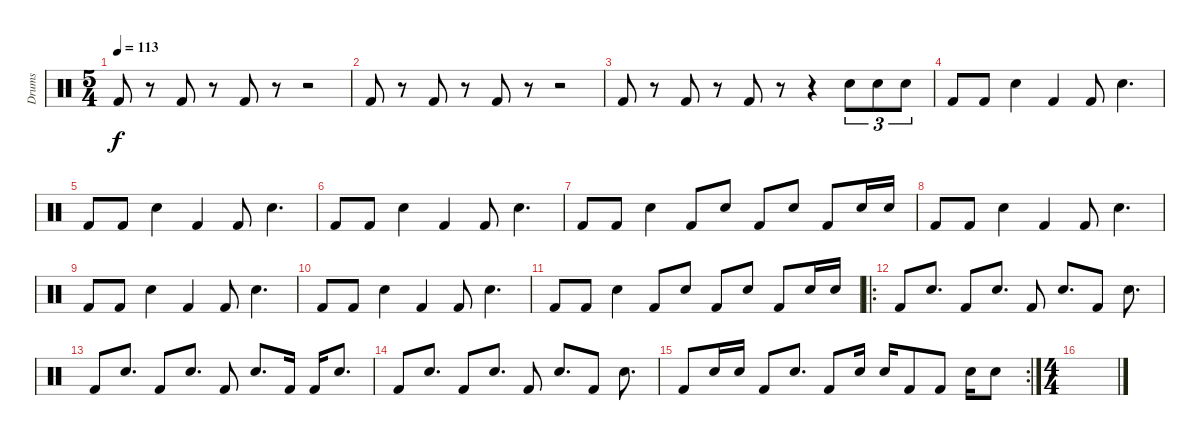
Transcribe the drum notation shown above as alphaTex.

\track ("Drums" "Drums") {instrument percussion}
\staff {score}
\articulation defaults
\ts (5 4)
\tempo 113
\clef neutral
\ks c "Kick (hit) 2".8{dy f}
r.8 "Kick (hit) 2".8 r.8 "Kick (hit) 2".8 r.8 r.2 |
"Kick (hit) 2".8 r.8 "Kick (hit) 2".8 r.8 "Kick (hit) 2".8 r.8 r.2 |
"Kick (hit) 2".8 r.8 "Kick (hit) 2".8 r.8 "Kick (hit) 2".8 r.8 r.4 "Electric Snare (hit)".8{tu (3 2)} "Electric Snare (hit)".8{tu (3 2)} "Electric Snare (hit)".8{tu (3 2)} |
"Kick (hit) 2".8 "Kick (hit) 2".8 "Electric Snare (hit)".4 "Kick (hit) 2".4 "Kick (hit) 2".8 "Electric Snare (hit)".4{d} |
"Kick (hit) 2".8 "Kick (hit) 2".8 "Electric Snare (hit)".4 "Kick (hit) 2".4 "Kick (hit) 2".8 "Electric Snare (hit)".4{d} |
"Kick (hit) 2".8 "Kick (hit) 2".8 "Electric Snare (hit)".4 "Kick (hit) 2".4 "Kick (hit) 2".8 "Electric Snare (hit)".4{d} |
"Kick (hit) 2".8 "Kick (hit) 2".8 "Electric Snare (hit)".4 "Kick (hit) 2".8 "Electric Snare (hit)".8 "Kick (hit) 2".8 "Electric Snare (hit)".8 "Kick (hit) 2".8 "Electric Snare (hit)".16 "Electric Snare (hit)".16 |
"Kick (hit) 2".8 "Kick (hit) 2".8 "Electric Snare (hit)".4 "Kick (hit) 2".4 "Kick (hit) 2".8 "Electric Snare (hit)".4{d} |
"Kick (hit) 2".8 "Kick (hit) 2".8 "Electric Snare (hit)".4 "Kick (hit) 2".4 "Kick (hit) 2".8 "Electric Snare (hit)".4{d} |
"Kick (hit) 2".8 "Kick (hit) 2".8 "Electric Snare (hit)".4 "Kick (hit) 2".4 "Kick (hit) 2".8 "Electric Snare (hit)".4{d} |
"Kick (hit) 2".8 "Kick (hit) 2".8 "Electric Snare (hit)".4 "Kick (hit) 2".8 "Electric Snare (hit)".8 "Kick (hit) 2".8 "Electric Snare (hit)".8 "Kick (hit) 2".8 "Electric Snare (hit)".16 "Electric Snare (hit)".16 |
\ro "Kick (hit) 2".8 "Electric Snare (hit)".8{d} "Kick (hit) 2".8 "Electric Snare (hit)".8{d} "Kick (hit) 2".8 "Electric Snare (hit)".8{d} "Kick (hit) 2".8 "Electric Snare (hit)".8{d}
|
"Kick (hit) 2".8 "Electric Snare (hit)".8{d} "Kick (hit) 2".8 "Electric Snare (hit)".8{d} "Kick (hit) 2".8 "Electric Snare (hit)".8{d} "Kick (hit) 2".16 "Kick (hit) 2".16 "Electric Snare (hit)".8{d} |
"Kick (hit) 2".8 "Electric Snare (hit)".8{d} "Kick (hit) 2".8 "Electric Snare (hit)".8{d} "Kick (hit) 2".8 "Electric Snare (hit)".8{d} "Kick (hit) 2".8 "Electric Snare (hit)".8{d} |
\rc 2 "Kick (hit) 2".8 "Electric Snare (hit)".16 "Electric Snare (hit)".16 "Kick (hit) 2".8 "Electric Snare (hit)".8{d} "Kick (hit) 2".8 "Electric Snare (hit)".16 "Electric Snare (hit)".16 "Kick (hit) 2".8 "Kick (hit) 2".8 "Electric Snare (hit)".16 "Electric Snare (hit)".8
|
\ts (4 4)
